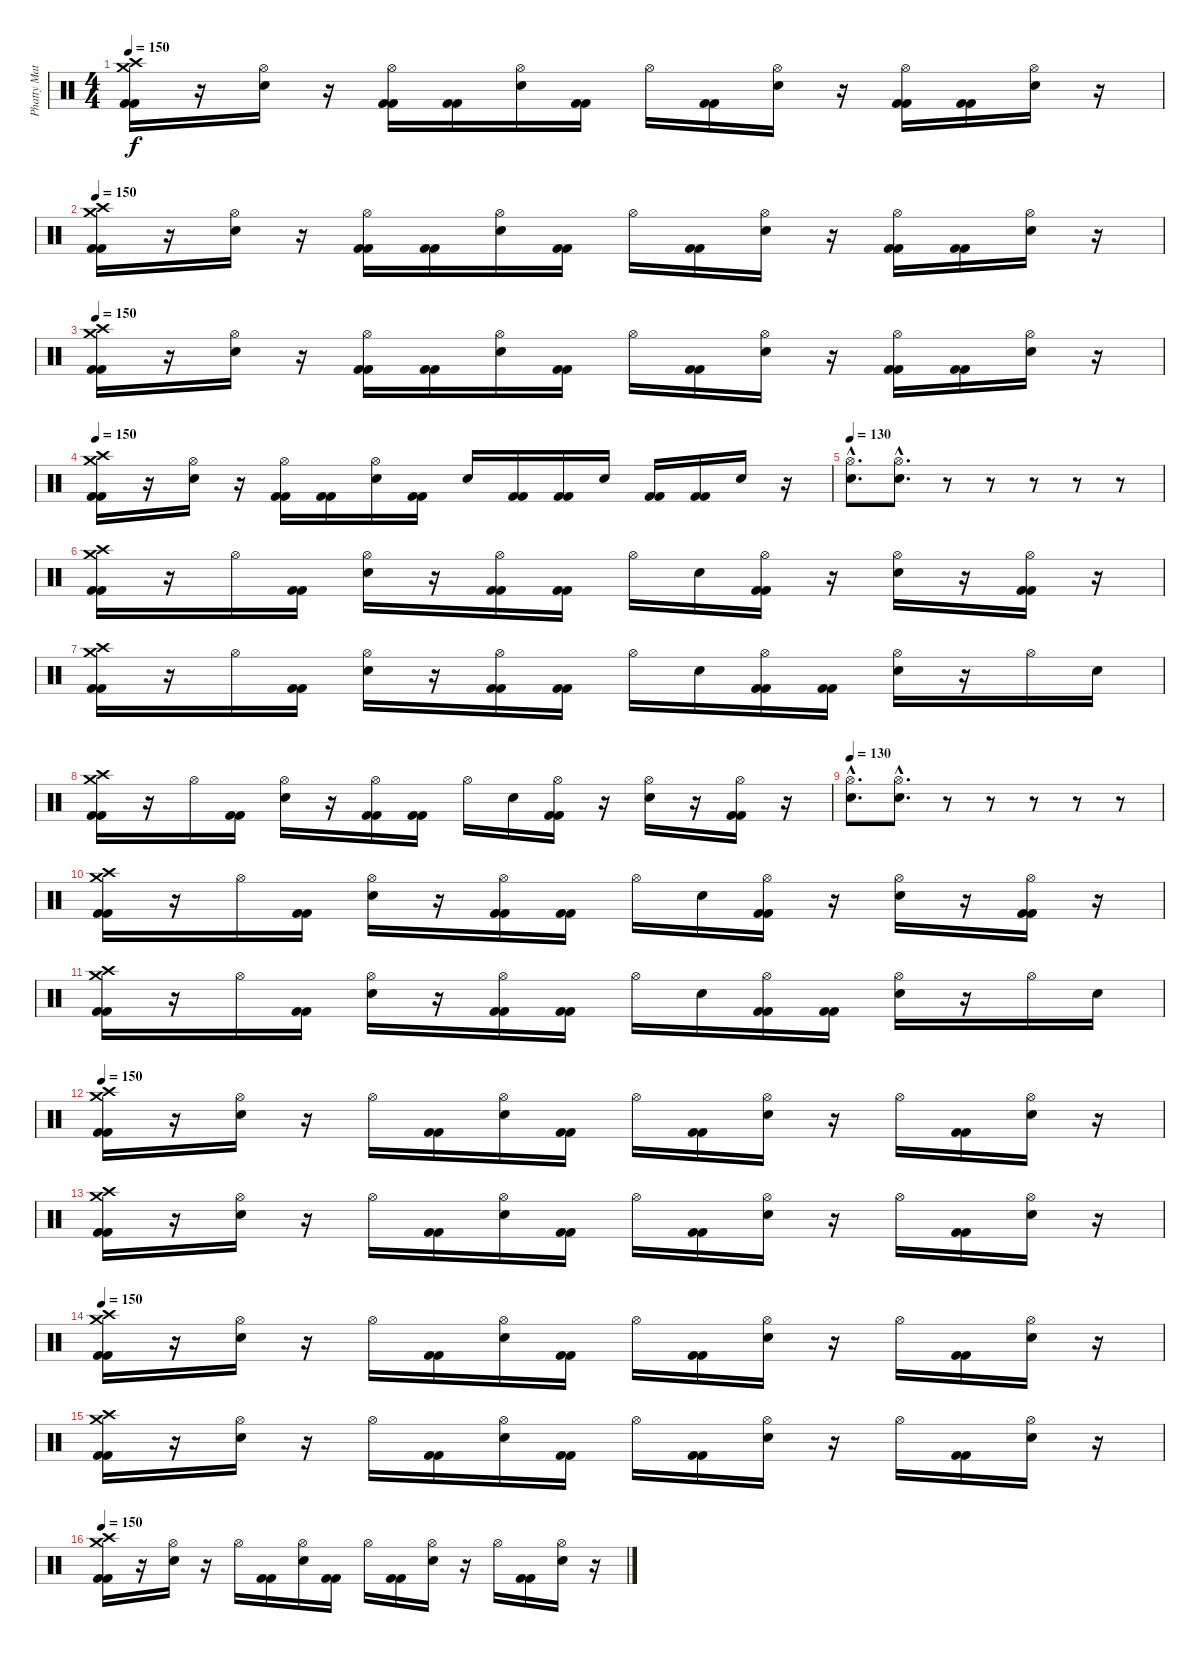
\track ("Phatty Matty Withrow (Drums)" "Phatty Mat") {instrument percussion}
\staff {score}
\articulation defaults
\ts (4 4)
\tempo 150
\clef neutral
\ks c
("Crash high (hit)" "Crash medium (hit)" "Kick (hit) 2" "Kick (hit) 2").16{dy f} r.16 ("Hi-Hat (open)" "Electric Snare (hit)").16 r.16 ("Hi-Hat (open)" "Kick (hit) 2" "Kick (hit) 2").16 ("Kick (hit) 2" "Kick (hit) 2").16 ("Hi-Hat (open)" "Electric Snare (hit)").16 ("Kick (hit) 2" "Kick (hit) 2").16 "Hi-Hat (open)".16 ("Kick (hit) 2" "Kick (hit) 2").16 ("Hi-Hat (open)" "Electric Snare (hit)").16 r.16 ("Hi-Hat (open)" "Kick (hit) 2" "Kick (hit) 2").16 ("Kick (hit) 2" "Kick (hit) 2").16 ("Hi-Hat (open)" "Electric Snare (hit)").16 r.16 |
\tempo 150
("Crash high (hit)" "Crash medium (hit)" "Kick (hit) 2" "Kick (hit) 2").16 r.16 ("Hi-Hat (open)" "Electric Snare (hit)").16 r.16 ("Hi-Hat (open)" "Kick (hit) 2" "Kick (hit) 2").16 ("Kick (hit) 2" "Kick (hit) 2").16 ("Hi-Hat (open)" "Electric Snare (hit)").16 ("Kick (hit) 2" "Kick (hit) 2").16 "Hi-Hat (open)".16 ("Kick (hit) 2" "Kick (hit) 2").16 ("Hi-Hat (open)" "Electric Snare (hit)").16 r.16 ("Hi-Hat (open)" "Kick (hit) 2" "Kick (hit) 2").16 ("Kick (hit) 2" "Kick (hit) 2").16 ("Hi-Hat (open)" "Electric Snare (hit)").16 r.16 |
\tempo 150
("Crash high (hit)" "Crash medium (hit)" "Kick (hit) 2" "Kick (hit) 2").16 r.16 ("Hi-Hat (open)" "Electric Snare (hit)").16 r.16 ("Hi-Hat (open)" "Kick (hit) 2" "Kick (hit) 2").16 ("Kick (hit) 2" "Kick (hit) 2").16 ("Hi-Hat (open)" "Electric Snare (hit)").16 ("Kick (hit) 2" "Kick (hit) 2").16 "Hi-Hat (open)".16 ("Kick (hit) 2" "Kick (hit) 2").16 ("Hi-Hat (open)" "Electric Snare (hit)").16 r.16 ("Hi-Hat (open)" "Kick (hit) 2" "Kick (hit) 2").16 ("Kick (hit) 2" "Kick (hit) 2").16 ("Hi-Hat (open)" "Electric Snare (hit)").16 r.16 |
\tempo 150
("Crash high (hit)" "Crash medium (hit)" "Kick (hit) 2" "Kick (hit) 2").16 r.16 ("Hi-Hat (open)" "Electric Snare (hit)").16 r.16 ("Hi-Hat (open)" "Kick (hit) 2" "Kick (hit) 2").16 ("Kick (hit) 2" "Kick (hit) 2").16 ("Hi-Hat (open)" "Electric Snare (hit)").16 ("Kick (hit) 2" "Kick (hit) 2").16 "Electric Snare (hit)".16 ("Kick (hit) 2" "Kick (hit) 2").16 ("Kick (hit) 2" "Kick (hit) 2").16 "Electric Snare (hit)".16 ("Kick (hit) 2" "Kick (hit) 2").16 ("Kick (hit) 2" "Kick (hit) 2").16 "Electric Snare (hit)".16 r.16 |
\tempo 130
("Hi-Hat (open)"{hac} "Electric Snare (hit)"{hac}).8{d} ("Hi-Hat (open)"{hac} "Electric Snare (hit)"{hac}).8{d} r.8 r.8 r.8 r.8 r.8 |
("Crash high (hit)" "Crash medium (hit)" "Kick (hit) 2" "Kick (hit) 2").16 r.16 "Hi-Hat (open)".16 ("Kick (hit) 2" "Kick (hit) 2").16 ("Hi-Hat (open)" "Electric Snare (hit)").16 r.16 ("Hi-Hat (open)" "Kick (hit) 2" "Kick (hit) 2").16 ("Kick (hit) 2" "Kick (hit) 2").16 "Hi-Hat (open)".16 "Electric Snare (hit)".16 ("Hi-Hat (open)" "Kick (hit) 2" "Kick (hit) 2").16 r.16 ("Hi-Hat (open)" "Electric Snare (hit)").16 r.16 ("Hi-Hat (open)" "Kick (hit) 2" "Kick (hit) 2").16 r.16 |
("Crash high (hit)" "Crash medium (hit)" "Kick (hit) 2" "Kick (hit) 2").16 r.16 "Hi-Hat (open)".16 ("Kick (hit) 2" "Kick (hit) 2").16 ("Hi-Hat (open)" "Electric Snare (hit)").16 r.16 ("Hi-Hat (open)" "Kick (hit) 2" "Kick (hit) 2").16 ("Kick (hit) 2" "Kick (hit) 2").16 "Hi-Hat (open)".16 "Electric Snare (hit)".16 ("Hi-Hat (open)" "Kick (hit) 2" "Kick (hit) 2").16 ("Kick (hit) 2" "Kick (hit) 2").16 ("Hi-Hat (open)" "Electric Snare (hit)").16 r.16 "Hi-Hat (open)".16 "Electric Snare (hit)".16 |
("Crash high (hit)" "Crash medium (hit)" "Kick (hit) 2" "Kick (hit) 2").16 r.16 "Hi-Hat (open)".16 ("Kick (hit) 2" "Kick (hit) 2").16 ("Hi-Hat (open)" "Electric Snare (hit)").16 r.16 ("Hi-Hat (open)" "Kick (hit) 2" "Kick (hit) 2").16 ("Kick (hit) 2" "Kick (hit) 2").16 "Hi-Hat (open)".16 "Electric Snare (hit)".16 ("Hi-Hat (open)" "Kick (hit) 2" "Kick (hit) 2").16 r.16 ("Hi-Hat (open)" "Electric Snare (hit)").16 r.16 ("Hi-Hat (open)" "Kick (hit) 2" "Kick (hit) 2").16 r.16 |
\tempo 130
("Hi-Hat (open)"{hac} "Electric Snare (hit)"{hac}).8{d} ("Hi-Hat (open)"{hac} "Electric Snare (hit)"{hac}).8{d} r.8 r.8 r.8 r.8 r.8 |
("Crash high (hit)" "Crash medium (hit)" "Kick (hit) 2" "Kick (hit) 2").16 r.16 "Hi-Hat (open)".16 ("Kick (hit) 2" "Kick (hit) 2").16 ("Hi-Hat (open)" "Electric Snare (hit)").16 r.16 ("Hi-Hat (open)" "Kick (hit) 2" "Kick (hit) 2").16 ("Kick (hit) 2" "Kick (hit) 2").16 "Hi-Hat (open)".16 "Electric Snare (hit)".16 ("Hi-Hat (open)" "Kick (hit) 2" "Kick (hit) 2").16 r.16 ("Hi-Hat (open)" "Electric Snare (hit)").16 r.16 ("Hi-Hat (open)" "Kick (hit) 2" "Kick (hit) 2").16 r.16 |
("Crash high (hit)" "Crash medium (hit)" "Kick (hit) 2" "Kick (hit) 2").16 r.16 "Hi-Hat (open)".16 ("Kick (hit) 2" "Kick (hit) 2").16 ("Hi-Hat (open)" "Electric Snare (hit)").16 r.16 ("Hi-Hat (open)" "Kick (hit) 2" "Kick (hit) 2").16 ("Kick (hit) 2" "Kick (hit) 2").16 "Hi-Hat (open)".16 "Electric Snare (hit)".16 ("Hi-Hat (open)" "Kick (hit) 2" "Kick (hit) 2").16 ("Kick (hit) 2" "Kick (hit) 2").16 ("Hi-Hat (open)" "Electric Snare (hit)").16 r.16 "Hi-Hat (open)".16 "Electric Snare (hit)".16 |
\tempo 150
("Crash high (hit)" "Crash medium (hit)" "Kick (hit) 2" "Kick (hit) 2").16 r.16 ("Hi-Hat (open)" "Electric Snare (hit)").16 r.16 "Hi-Hat (open)".16 ("Kick (hit) 2" "Kick (hit) 2").16 ("Hi-Hat (open)" "Electric Snare (hit)").16 ("Kick (hit) 2" "Kick (hit) 2").16 "Hi-Hat (open)".16 ("Kick (hit) 2" "Kick (hit) 2").16 ("Hi-Hat (open)" "Electric Snare (hit)").16 r.16 "Hi-Hat (open)".16 ("Kick (hit) 2" "Kick (hit) 2").16 ("Hi-Hat (open)" "Electric Snare (hit)").16 r.16 |
("Crash high (hit)" "Crash medium (hit)" "Kick (hit) 2" "Kick (hit) 2").16 r.16 ("Hi-Hat (open)" "Electric Snare (hit)").16 r.16 "Hi-Hat (open)".16 ("Kick (hit) 2" "Kick (hit) 2").16 ("Hi-Hat (open)" "Electric Snare (hit)").16 ("Kick (hit) 2" "Kick (hit) 2").16 "Hi-Hat (open)".16 ("Kick (hit) 2" "Kick (hit) 2").16 ("Hi-Hat (open)" "Electric Snare (hit)").16 r.16 "Hi-Hat (open)".16 ("Kick (hit) 2" "Kick (hit) 2").16 ("Hi-Hat (open)" "Electric Snare (hit)").16 r.16 |
\tempo 150
("Crash high (hit)" "Crash medium (hit)" "Kick (hit) 2" "Kick (hit) 2").16 r.16 ("Hi-Hat (open)" "Electric Snare (hit)").16 r.16 "Hi-Hat (open)".16 ("Kick (hit) 2" "Kick (hit) 2").16 ("Hi-Hat (open)" "Electric Snare (hit)").16 ("Kick (hit) 2" "Kick (hit) 2").16 "Hi-Hat (open)".16 ("Kick (hit) 2" "Kick (hit) 2").16 ("Hi-Hat (open)" "Electric Snare (hit)").16 r.16 "Hi-Hat (open)".16 ("Kick (hit) 2" "Kick (hit) 2").16 ("Hi-Hat (open)" "Electric Snare (hit)").16 r.16 |
("Crash high (hit)" "Crash medium (hit)" "Kick (hit) 2" "Kick (hit) 2").16 r.16 ("Hi-Hat (open)" "Electric Snare (hit)").16 r.16 "Hi-Hat (open)".16 ("Kick (hit) 2" "Kick (hit) 2").16 ("Hi-Hat (open)" "Electric Snare (hit)").16 ("Kick (hit) 2" "Kick (hit) 2").16 "Hi-Hat (open)".16 ("Kick (hit) 2" "Kick (hit) 2").16 ("Hi-Hat (open)" "Electric Snare (hit)").16 r.16 "Hi-Hat (open)".16 ("Kick (hit) 2" "Kick (hit) 2").16 ("Hi-Hat (open)" "Electric Snare (hit)").16 r.16 |
\tempo 150
("Crash high (hit)" "Crash medium (hit)" "Kick (hit) 2" "Kick (hit) 2").16 r.16 ("Hi-Hat (open)" "Electric Snare (hit)").16 r.16 "Hi-Hat (open)".16 ("Kick (hit) 2" "Kick (hit) 2").16 ("Hi-Hat (open)" "Electric Snare (hit)").16 ("Kick (hit) 2" "Kick (hit) 2").16 "Hi-Hat (open)".16 ("Kick (hit) 2" "Kick (hit) 2").16 ("Hi-Hat (open)" "Electric Snare (hit)").16 r.16 "Hi-Hat (open)".16 ("Kick (hit) 2" "Kick (hit) 2").16 ("Hi-Hat (open)" "Electric Snare (hit)").16 r.16
